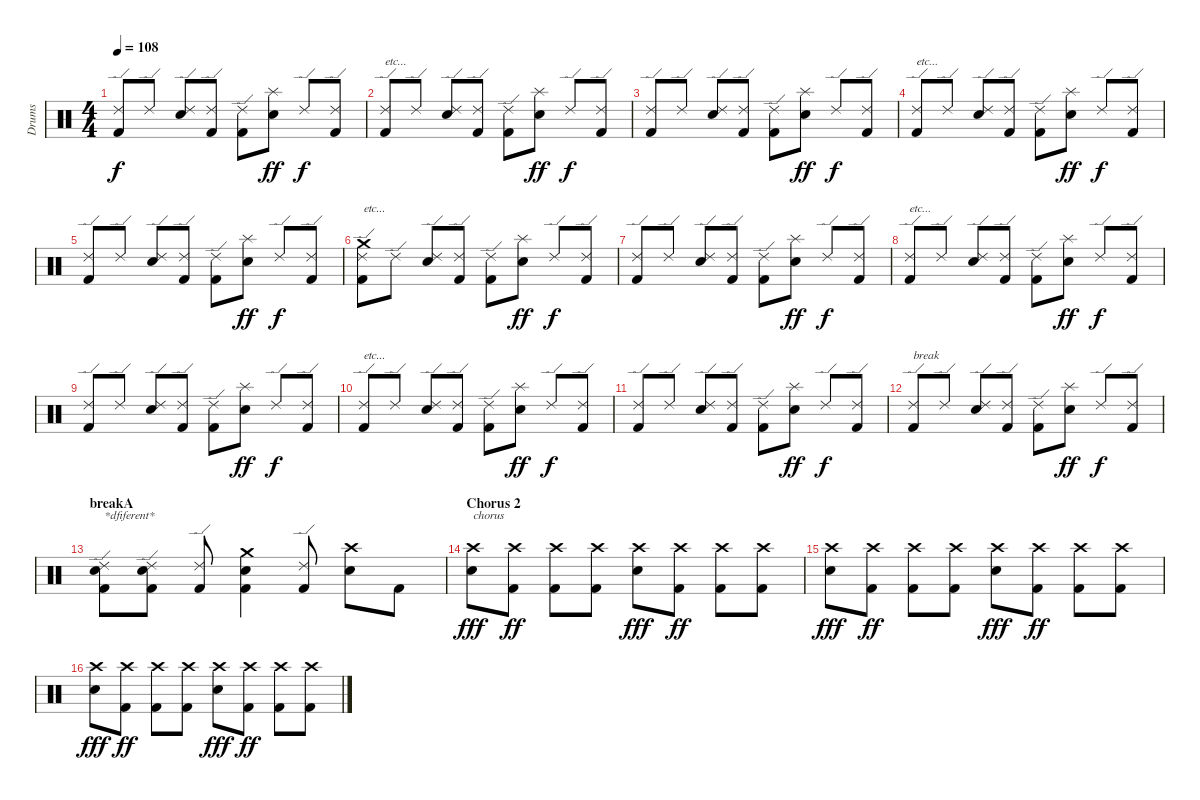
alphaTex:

\track ("Drums" "Drums") {instrument percussion}
\staff {score}
\articulation defaults
\ts (4 4)
\tempo 108
\clef neutral
\ks c
("Ride (edge) 2" "Kick (hit) 2").8{dy f} "Ride (edge) 2".8 ("Ride (edge) 2" "Electric Snare (hit)").8 ("Ride (edge) 2" "Kick (hit) 2").8 ("Ride (edge) 2" "Kick (hit) 2").8 ("Splash (hit)" "Electric Snare (hit)").8{dy ff} "Ride (edge) 2".8{dy f} ("Ride (edge) 2" "Kick (hit) 2").8 |
("Ride (edge) 2" "Kick (hit) 2").8{txt "etc..."} "Ride (edge) 2".8 ("Ride (edge) 2" "Electric Snare (hit)").8 ("Ride (edge) 2" "Kick (hit) 2").8 ("Ride (edge) 2" "Kick (hit) 2").8 ("Splash (hit)" "Electric Snare (hit)").8{dy ff} "Ride (edge) 2".8{dy f} ("Ride (edge) 2" "Kick (hit) 2").8 |
("Ride (edge) 2" "Kick (hit) 2").8 "Ride (edge) 2".8 ("Ride (edge) 2" "Electric Snare (hit)").8 ("Ride (edge) 2" "Kick (hit) 2").8 ("Ride (edge) 2" "Kick (hit) 2").8 ("Splash (hit)" "Electric Snare (hit)").8{dy ff} "Ride (edge) 2".8{dy f} ("Ride (edge) 2" "Kick (hit) 2").8 |
("Ride (edge) 2" "Kick (hit) 2").8{txt "etc..."} "Ride (edge) 2".8 ("Ride (edge) 2" "Electric Snare (hit)").8 ("Ride (edge) 2" "Kick (hit) 2").8 ("Ride (edge) 2" "Kick (hit) 2").8 ("Splash (hit)" "Electric Snare (hit)").8{dy ff} "Ride (edge) 2".8{dy f} ("Ride (edge) 2" "Kick (hit) 2").8 |
("Ride (edge) 2" "Kick (hit) 2").8 "Ride (edge) 2".8 ("Ride (edge) 2" "Electric Snare (hit)").8 ("Ride (edge) 2" "Kick (hit) 2").8 ("Ride (edge) 2" "Kick (hit) 2").8 ("Splash (hit)" "Electric Snare (hit)").8{dy ff} "Ride (edge) 2".8{dy f} ("Ride (edge) 2" "Kick (hit) 2").8 |
("Ride (edge) 2" "Crash medium (hit)" "Kick (hit) 2").8{txt "etc..."} "Ride (edge) 2".8 ("Ride (edge) 2" "Electric Snare (hit)").8 ("Ride (edge) 2" "Kick (hit) 2").8 ("Ride (edge) 2" "Kick (hit) 2").8 ("Splash (hit)" "Electric Snare (hit)").8{dy ff} "Ride (edge) 2".8{dy f} ("Ride (edge) 2" "Kick (hit) 2").8 |
("Ride (edge) 2" "Kick (hit) 2").8 "Ride (edge) 2".8 ("Ride (edge) 2" "Electric Snare (hit)").8 ("Ride (edge) 2" "Kick (hit) 2").8 ("Ride (edge) 2" "Kick (hit) 2").8 ("Splash (hit)" "Electric Snare (hit)").8{dy ff} "Ride (edge) 2".8{dy f} ("Ride (edge) 2" "Kick (hit) 2").8 |
("Ride (edge) 2" "Kick (hit) 2").8{txt "etc..."} "Ride (edge) 2".8 ("Ride (edge) 2" "Electric Snare (hit)").8 ("Ride (edge) 2" "Kick (hit) 2").8 ("Ride (edge) 2" "Kick (hit) 2").8 ("Splash (hit)" "Electric Snare (hit)").8{dy ff} "Ride (edge) 2".8{dy f} ("Ride (edge) 2" "Kick (hit) 2").8 |
("Ride (edge) 2" "Kick (hit) 2").8 "Ride (edge) 2".8 ("Ride (edge) 2" "Electric Snare (hit)").8 ("Ride (edge) 2" "Kick (hit) 2").8 ("Ride (edge) 2" "Kick (hit) 2").8 ("Splash (hit)" "Electric Snare (hit)").8{dy ff} "Ride (edge) 2".8{dy f} ("Ride (edge) 2" "Kick (hit) 2").8 |
("Ride (edge) 2" "Kick (hit) 2").8{txt "etc..."} "Ride (edge) 2".8 ("Ride (edge) 2" "Electric Snare (hit)").8 ("Ride (edge) 2" "Kick (hit) 2").8 ("Ride (edge) 2" "Kick (hit) 2").8 ("Splash (hit)" "Electric Snare (hit)").8{dy ff} "Ride (edge) 2".8{dy f} ("Ride (edge) 2" "Kick (hit) 2").8 |
("Ride (edge) 2" "Kick (hit) 2").8 "Ride (edge) 2".8 ("Ride (edge) 2" "Electric Snare (hit)").8 ("Ride (edge) 2" "Kick (hit) 2").8 ("Ride (edge) 2" "Kick (hit) 2").8 ("Splash (hit)" "Electric Snare (hit)").8{dy ff} "Ride (edge) 2".8{dy f} ("Ride (edge) 2" "Kick (hit) 2").8 |
("Ride (edge) 2" "Kick (hit) 2").8{txt "break"} "Ride (edge) 2".8 ("Ride (edge) 2" "Electric Snare (hit)").8 ("Ride (edge) 2" "Kick (hit) 2").8 ("Ride (edge) 2" "Kick (hit) 2").8 ("Splash (hit)" "Electric Snare (hit)").8{dy ff} "Ride (edge) 2".8{dy f} ("Ride (edge) 2" "Kick (hit) 2").8 |
\section ("" "breakA")
("Ride (edge) 2" "Electric Snare (hit)" "Kick (hit) 2").8{txt "*dfiferent*"} ("Ride (edge) 2" "Electric Snare (hit)" "Kick (hit) 2").8 ("Ride (edge) 2" "Kick (hit) 2").8 ("Crash medium (hit)" "Electric Snare (hit)" "Kick (hit) 2").4 ("Ride (edge) 2" "Kick (hit) 2").8 ("Crash high (hit)" "Electric Snare (hit)").8 "Kick (hit) 2".8 |
\section ("" "Chorus 2")
("Crash high (hit)" "Electric Snare (hit)").8{txt "chorus" dy fff} ("Crash high (hit)" "Kick (hit) 2").8{dy ff} ("Crash high (hit)" "Kick (hit) 2").8 ("Crash high (hit)" "Kick (hit) 2").8 ("Crash high (hit)" "Electric Snare (hit)").8{dy fff} ("Crash high (hit)" "Kick (hit) 2").8{dy ff} ("Crash high (hit)" "Kick (hit) 2").8 ("Crash high (hit)" "Kick (hit) 2").8 |
("Crash high (hit)" "Electric Snare (hit)").8{dy fff} ("Crash high (hit)" "Kick (hit) 2").8{dy ff} ("Crash high (hit)" "Kick (hit) 2").8 ("Crash high (hit)" "Kick (hit) 2").8 ("Crash high (hit)" "Electric Snare (hit)").8{dy fff} ("Crash high (hit)" "Kick (hit) 2").8{dy ff} ("Crash high (hit)" "Kick (hit) 2").8 ("Crash high (hit)" "Kick (hit) 2").8 |
("Crash high (hit)" "Electric Snare (hit)").8{dy fff} ("Crash high (hit)" "Kick (hit) 2").8{dy ff} ("Crash high (hit)" "Kick (hit) 2").8 ("Crash high (hit)" "Kick (hit) 2").8 ("Crash high (hit)" "Electric Snare (hit)").8{dy fff} ("Crash high (hit)" "Kick (hit) 2").8{dy ff} ("Crash high (hit)" "Kick (hit) 2").8 ("Crash high (hit)" "Kick (hit) 2").8
